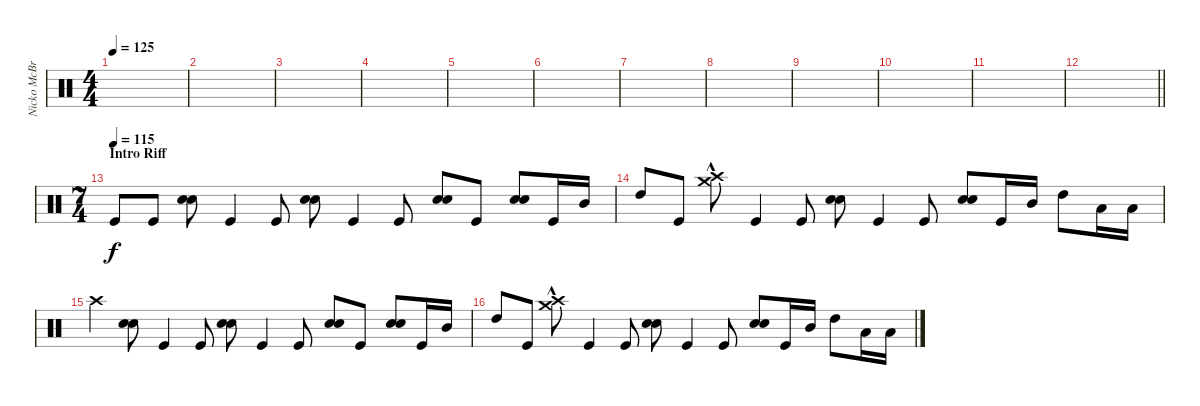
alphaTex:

\track ("Nicko McBrain" "Nicko McBr") {instrument percussion}
\staff {score}
\articulation defaults
\ts (4 4)
\tempo 125
\clef neutral
\ks c
|
|
|
|
|
|
|
|
|
|
|
\barLineRight lightlight
|
\ts (7 4)
\section ("" "Intro Riff")
\tempo (115)
"Kick (hit)".8 "Kick (hit)".8 ("Electric Snare (hit)" "Electric Snare (hit)").8 "Kick (hit)".4 "Kick (hit)".8 ("Electric Snare (hit)" "Electric Snare (hit)").8 "Kick (hit)".4 "Kick (hit)".8 ("Electric Snare (hit)" "Electric Snare (hit)").8 "Kick (hit)".8 ("Electric Snare (hit)" "Electric Snare (hit)").8 "Kick (hit)".16 "Mid Tom (hit)".16 |
"High Tom (hit)".8 "Kick (hit)".8 ("Crash medium (hit)"{hac} "Crash high (hit)").8 "Kick (hit)".4 "Kick (hit)".8 ("Electric Snare (hit)" "Electric Snare (hit)").8 "Kick (hit)".4 "Kick (hit)".8 ("Electric Snare (hit)" "Electric Snare (hit)").8 "Kick (hit)".16 "Mid Tom (hit)".16 "High Tom (hit)".8 "Low Tom (hit)".16 "Low Tom (hit)".16 |
"Crash high (hit)".4 ("Electric Snare (hit)" "Electric Snare (hit)").8 "Kick (hit)".4 "Kick (hit)".8 ("Electric Snare (hit)" "Electric Snare (hit)").8 "Kick (hit)".4 "Kick (hit)".8 ("Electric Snare (hit)" "Electric Snare (hit)").8 "Kick (hit)".8 ("Electric Snare (hit)" "Electric Snare (hit)").8 "Kick (hit)".16 "Mid Tom (hit)".16 |
"High Tom (hit)".8 "Kick (hit)".8 ("Crash medium (hit)"{hac} "Crash high (hit)").8 "Kick (hit)".4 "Kick (hit)".8 ("Electric Snare (hit)" "Electric Snare (hit)").8 "Kick (hit)".4 "Kick (hit)".8 ("Electric Snare (hit)" "Electric Snare (hit)").8 "Kick (hit)".16 "Mid Tom (hit)".16 "High Tom (hit)".8 "Low Tom (hit)".16 "Low Tom (hit)".16
